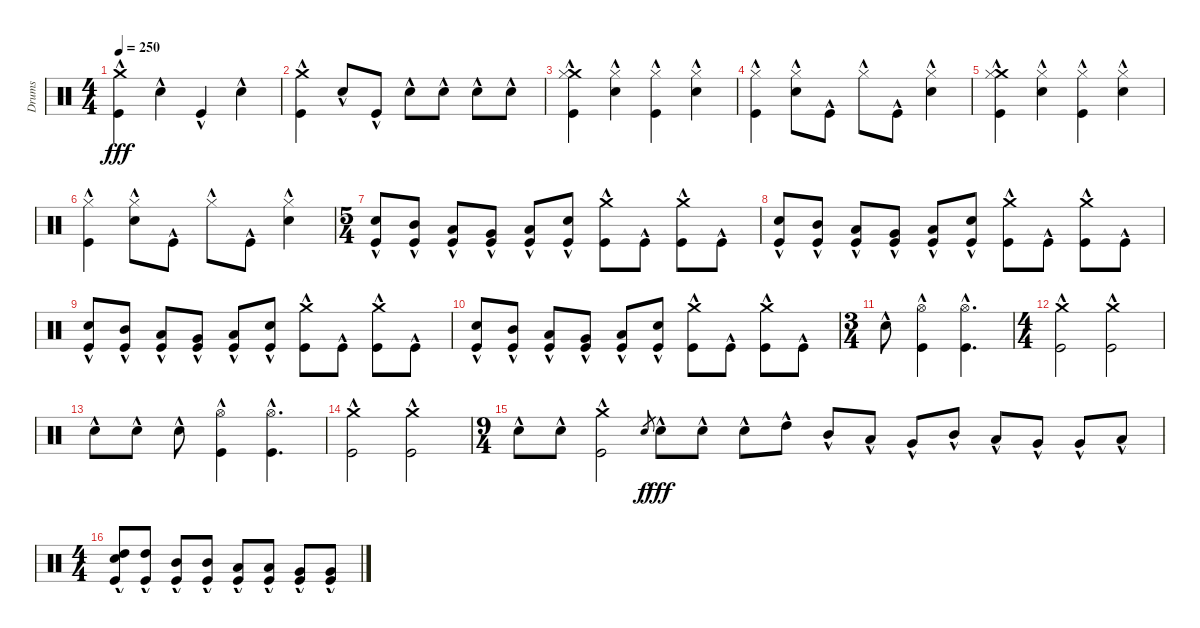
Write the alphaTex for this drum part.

\track ("Drums" "Drums") {instrument percussion}
\staff {score}
\articulation defaults
\ts (4 4)
\tempo 250
\clef neutral
\ks c
("Crash medium (hit)"{hac} "Kick (hit)"{hac}).4{dy fff} "Snare (hit) 2"{hac}.4 "Kick (hit)"{hac}.4 "Snare (hit) 2"{hac}.4 |
("Crash medium (hit)"{hac} "Kick (hit)"{hac}).4 "Snare (hit) 2"{hac}.8 "Kick (hit)"{hac}.8 "Snare (hit) 2"{hac}.8 "Snare (hit) 2"{hac}.8 "Snare (hit) 2"{hac}.8 "Snare (hit) 2"{hac}.8 |
("Crash medium (hit)"{hac} "Hi-Hat (closed)"{hac} "Kick (hit)"{hac}).4 ("Hi-Hat (closed)"{hac} "Snare (hit) 2"{hac}).4 ("Hi-Hat (closed)"{hac} "Kick (hit)"{hac}).4 ("Hi-Hat (closed)"{hac} "Snare (hit) 2"{hac}).4 |
("Hi-Hat (closed)"{hac} "Kick (hit)"{hac}).4 ("Hi-Hat (closed)"{hac} "Snare (hit) 2"{hac}).8 "Kick (hit)"{hac}.8 "Hi-Hat (closed)"{hac}.8 "Kick (hit)"{hac}.8 ("Hi-Hat (closed)"{hac} "Snare (hit) 2"{hac}).4 |
("Crash medium (hit)"{hac} "Hi-Hat (closed)"{hac} "Kick (hit)"{hac}).4 ("Hi-Hat (closed)"{hac} "Snare (hit) 2"{hac}).4 ("Hi-Hat (closed)"{hac} "Kick (hit)"{hac}).4 ("Hi-Hat (closed)"{hac} "Snare (hit) 2"{hac}).4 |
("Hi-Hat (closed)"{hac} "Kick (hit)"{hac}).4 ("Hi-Hat (closed)"{hac} "Snare (hit) 2"{hac}).8 "Kick (hit)"{hac}.8 "Hi-Hat (closed)"{hac}.8 "Kick (hit)"{hac}.8 ("Hi-Hat (closed)"{hac} "Snare (hit) 2"{hac}).4 |
\ts (5 4)
("Snare (hit) 2"{hac} "Kick (hit)"{hac}).8 ("Mid Tom (hit)"{hac} "Kick (hit)"{hac}).8 ("Low Tom (hit)"{hac} "Kick (hit)"{hac}).8 ("Very Low Tom (hit)"{hac} "Kick (hit)"{hac}).8 ("Low Floor Tom (hit)"{hac} "Kick (hit)"{hac}).8 ("Snare (hit) 2"{hac} "Kick (hit)"{hac}).8 ("Crash medium (hit)"{hac} "Kick (hit)"{hac}).8 "Kick (hit)"{hac}.8 ("Crash medium (hit)"{hac} "Kick (hit)"{hac}).8 "Kick (hit)"{hac}.8 |
("Snare (hit) 2"{hac} "Kick (hit)"{hac}).8 ("Mid Tom (hit)"{hac} "Kick (hit)"{hac}).8 ("Low Tom (hit)"{hac} "Kick (hit)"{hac}).8 ("Very Low Tom (hit)"{hac} "Kick (hit)"{hac}).8 ("Low Floor Tom (hit)"{hac} "Kick (hit)"{hac}).8 ("Snare (hit) 2"{hac} "Kick (hit)"{hac}).8 ("Crash medium (hit)"{hac} "Kick (hit)"{hac}).8 "Kick (hit)"{hac}.8 ("Crash medium (hit)"{hac} "Kick (hit)"{hac}).8 "Kick (hit)"{hac}.8 |
("Snare (hit) 2"{hac} "Kick (hit)"{hac}).8 ("Mid Tom (hit)"{hac} "Kick (hit)"{hac}).8 ("Low Tom (hit)"{hac} "Kick (hit)"{hac}).8 ("Very Low Tom (hit)"{hac} "Kick (hit)"{hac}).8 ("Low Floor Tom (hit)"{hac} "Kick (hit)"{hac}).8 ("Snare (hit) 2"{hac} "Kick (hit)"{hac}).8 ("Crash medium (hit)"{hac} "Kick (hit)"{hac}).8 "Kick (hit)"{hac}.8 ("Crash medium (hit)"{hac} "Kick (hit)"{hac}).8 "Kick (hit)"{hac}.8 |
("Snare (hit) 2"{hac} "Kick (hit)"{hac}).8 ("Mid Tom (hit)"{hac} "Kick (hit)"{hac}).8 ("Low Tom (hit)"{hac} "Kick (hit)"{hac}).8 ("Very Low Tom (hit)"{hac} "Kick (hit)"{hac}).8 ("Low Floor Tom (hit)"{hac} "Kick (hit)"{hac}).8 ("Snare (hit) 2"{hac} "Kick (hit)"{hac}).8 ("Crash medium (hit)"{hac} "Kick (hit)"{hac}).8 "Kick (hit)"{hac}.8 ("Crash medium (hit)"{hac} "Kick (hit)"{hac}).8 "Kick (hit)"{hac}.8 |
\ts (3 4)
"Snare (hit) 2"{hac}.8 ("Hi-Hat (open)"{hac} "Kick (hit)"{hac}).4 ("Hi-Hat (open)"{hac} "Kick (hit)"{hac}).4{d} |
\ts (4 4)
("Crash medium (hit)"{hac} "Kick (hit)"{hac}).2 ("Crash medium (hit)"{hac} "Kick (hit)"{hac}).2 |
"Snare (hit) 2"{hac}.8 "Snare (hit) 2"{hac}.8 "Snare (hit) 2"{hac}.8 ("Hi-Hat (open)"{hac} "Kick (hit)"{hac}).4 ("Hi-Hat (open)"{hac} "Kick (hit)"{hac}).4{d} |
("Crash medium (hit)"{hac} "Kick (hit)"{hac}).2 ("Crash medium (hit)"{hac} "Kick (hit)"{hac}).2 |
\ts (9 4)
"Snare (hit) 2"{hac}.8 "Snare (hit) 2"{hac}.8 ("Crash medium (hit)"{hac} "Kick (hit)"{hac}).2 "Snare (hit) 2".8{gr dy f} "Snare (hit) 2"{hac}.8{dy fff} "Snare (hit) 2"{hac}.8 "Snare (hit) 2"{hac}.8 "High Tom (hit)"{hac}.8 "Mid Tom (hit)"{hac}.8 "Low Tom (hit)"{hac}.8 "Very Low Tom (hit)"{hac}.8 "Mid Tom (hit)"{hac}.8 "Low Tom (hit)"{hac}.8 "Very Low Tom (hit)"{hac}.8 "Very Low Tom (hit)"{hac}.8 "Low Floor Tom (hit)"{hac}.8 |
\ts (4 4)
("High Tom (hit)"{hac} "Snare (hit) 2"{hac} "Kick (hit)"{hac}).8 ("High Tom (hit)"{hac} "Kick (hit)"{hac}).8 ("Mid Tom (hit)"{hac} "Kick (hit)"{hac}).8 ("Mid Tom (hit)"{hac} "Kick (hit)"{hac}).8 ("Low Tom (hit)"{hac} "Kick (hit)"{hac}).8 ("Low Tom (hit)"{hac} "Kick (hit)"{hac}).8 ("Very Low Tom (hit)"{hac} "Kick (hit)"{hac}).8 ("Very Low Tom (hit)"{hac} "Kick (hit)"{hac}).8
